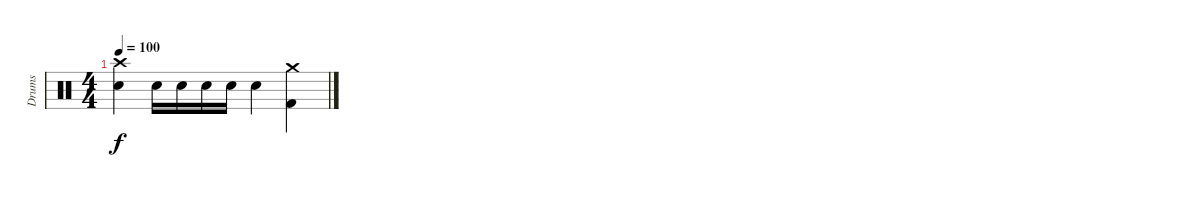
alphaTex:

\track ("Drums" "Drums") {instrument percussion}
\staff {score}
\articulation defaults
\ts (4 4)
\tempo 100
\clef neutral
\ks c
("Crash high (hit)" "Electric Snare (hit)").4{dy f} "Electric Snare (hit)".16 "Electric Snare (hit)".16 "Electric Snare (hit)".16 "Electric Snare (hit)".16 "Electric Snare (hit)".4 ("Crash medium (hit)" "Kick (hit) 2").4
